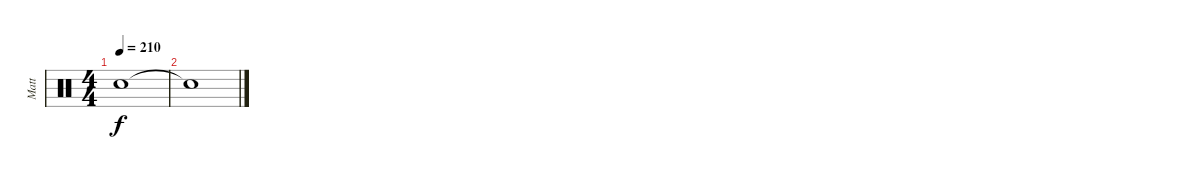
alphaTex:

\track ("Matt" "Matt") {instrument percussion}
\staff {score}
\articulation defaults
\ts (4 4)
\tempo 210
\clef neutral
\ks c "Snare (hit)"{t}.1{dy f}
|
"Snare (hit)"{t}.1
